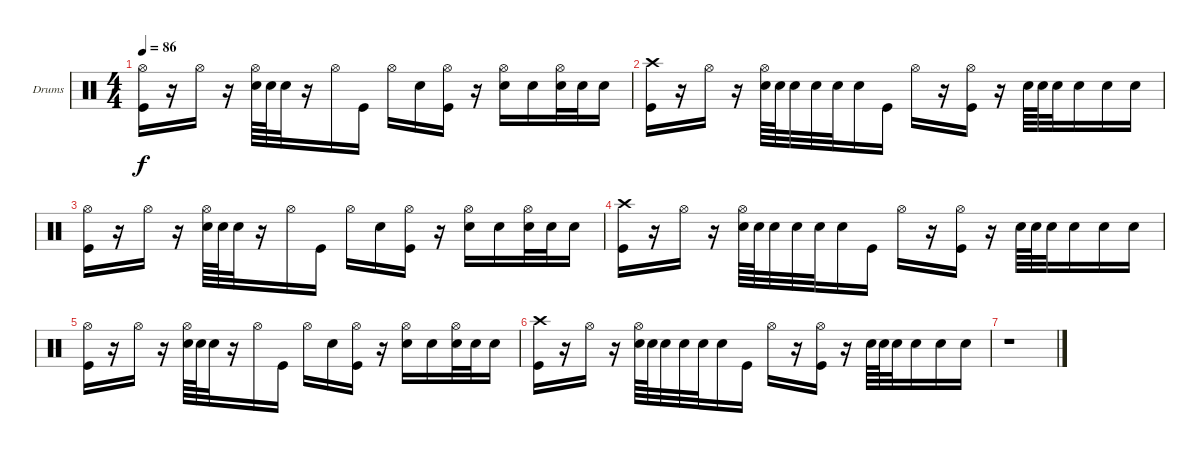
\defaultSystemsLayout 4
\bracketExtendMode groupsimilarinstruments
\firstSystemTrackNameOrientation horizontal
\otherSystemsTrackNameOrientation horizontal
\track ("Rocky Gray (Drums)" "Drums") {instrument percussion}
\staff {score}
\articulation defaults
\ts (4 4)
\tempo 86
\clef neutral
\scale
0.333333
\ks c
("Hi-Hat (open)" "Kick (hit)").16{dy f} r.16 "Hi-Hat (open)".16 r.16 ("Hi-Hat (open)" "Snare (hit) 2").64 "Snare (hit) 2".64 "Snare (hit) 2".32 r.16 "Hi-Hat (open)".16 "Kick (hit)".16 "Hi-Hat (open)".16 "Snare (hit) 2".16 ("Hi-Hat (open)" "Kick (hit)").16 r.16 ("Hi-Hat (open)" "Snare (hit) 2").16 "Snare (hit) 2".16 ("Hi-Hat (open)" "Snare (hit) 2").32 "Snare (hit) 2".32 "Snare (hit) 2".16 |
\scale
0.333333 ("Crash high (hit)" "Kick (hit)").16 r.16 "Hi-Hat (open)".16 r.16 ("Hi-Hat (open)" "Snare (hit) 2").64 "Snare (hit) 2".64 "Snare (hit) 2".32 "Snare (hit) 2".32 "Snare (hit) 2".32 "Snare (hit) 2".16 "Kick (hit)".16 "Hi-Hat (open)".16 r.16 ("Hi-Hat (open)" "Kick (hit)").16 r.16 "Snare (hit) 2".64 "Snare (hit) 2".64 "Snare (hit) 2".32 "Snare (hit) 2".16 "Snare (hit) 2".16 "Snare (hit) 2".16 |
\scale
0.333333 ("Hi-Hat (open)" "Kick (hit)").16 r.16 "Hi-Hat (open)".16 r.16 ("Hi-Hat (open)" "Snare (hit) 2").64 "Snare (hit) 2".64 "Snare (hit) 2".32 r.16 "Hi-Hat (open)".16 "Kick (hit)".16 "Hi-Hat (open)".16 "Snare (hit) 2".16 ("Hi-Hat (open)" "Kick (hit)").16 r.16 ("Hi-Hat (open)" "Snare (hit) 2").16 "Snare (hit) 2".16 ("Hi-Hat (open)" "Snare (hit) 2").32 "Snare (hit) 2".32 "Snare (hit) 2".16 |
\scale
0.333333 ("Crash high (hit)" "Kick (hit)").16 r.16 "Hi-Hat (open)".16 r.16 ("Hi-Hat (open)" "Snare (hit) 2").64 "Snare (hit) 2".64 "Snare (hit) 2".32 "Snare (hit) 2".32 "Snare (hit) 2".32 "Snare (hit) 2".16 "Kick (hit)".16 "Hi-Hat (open)".16 r.16 ("Hi-Hat (open)" "Kick (hit)").16 r.16 "Snare (hit) 2".64 "Snare (hit) 2".64 "Snare (hit) 2".32 "Snare (hit) 2".16 "Snare (hit) 2".16 "Snare (hit) 2".16 |
\scale
0.333333 ("Hi-Hat (open)" "Kick (hit)").16 r.16 "Hi-Hat (open)".16 r.16 ("Hi-Hat (open)" "Snare (hit) 2").64 "Snare (hit) 2".64 "Snare (hit) 2".32 r.16 "Hi-Hat (open)".16 "Kick (hit)".16 "Hi-Hat (open)".16 "Snare (hit) 2".16 ("Hi-Hat (open)" "Kick (hit)").16 r.16 ("Hi-Hat (open)" "Snare (hit) 2").16 "Snare (hit) 2".16 ("Hi-Hat (open)" "Snare (hit) 2").32 "Snare (hit) 2".32 "Snare (hit) 2".16 |
\scale
0.333333 ("Crash high (hit)" "Kick (hit)").16 r.16 "Hi-Hat (open)".16 r.16 ("Hi-Hat (open)" "Snare (hit) 2").64 "Snare (hit) 2".64 "Snare (hit) 2".32 "Snare (hit) 2".32 "Snare (hit) 2".32 "Snare (hit) 2".16 "Kick (hit)".16 "Hi-Hat (open)".16 r.16 ("Hi-Hat (open)" "Kick (hit)").16 r.16 "Snare (hit) 2".64 "Snare (hit) 2".64 "Snare (hit) 2".32 "Snare (hit) 2".16 "Snare (hit) 2".16 "Snare (hit) 2".16 |
\scale
0.333333 r.1
